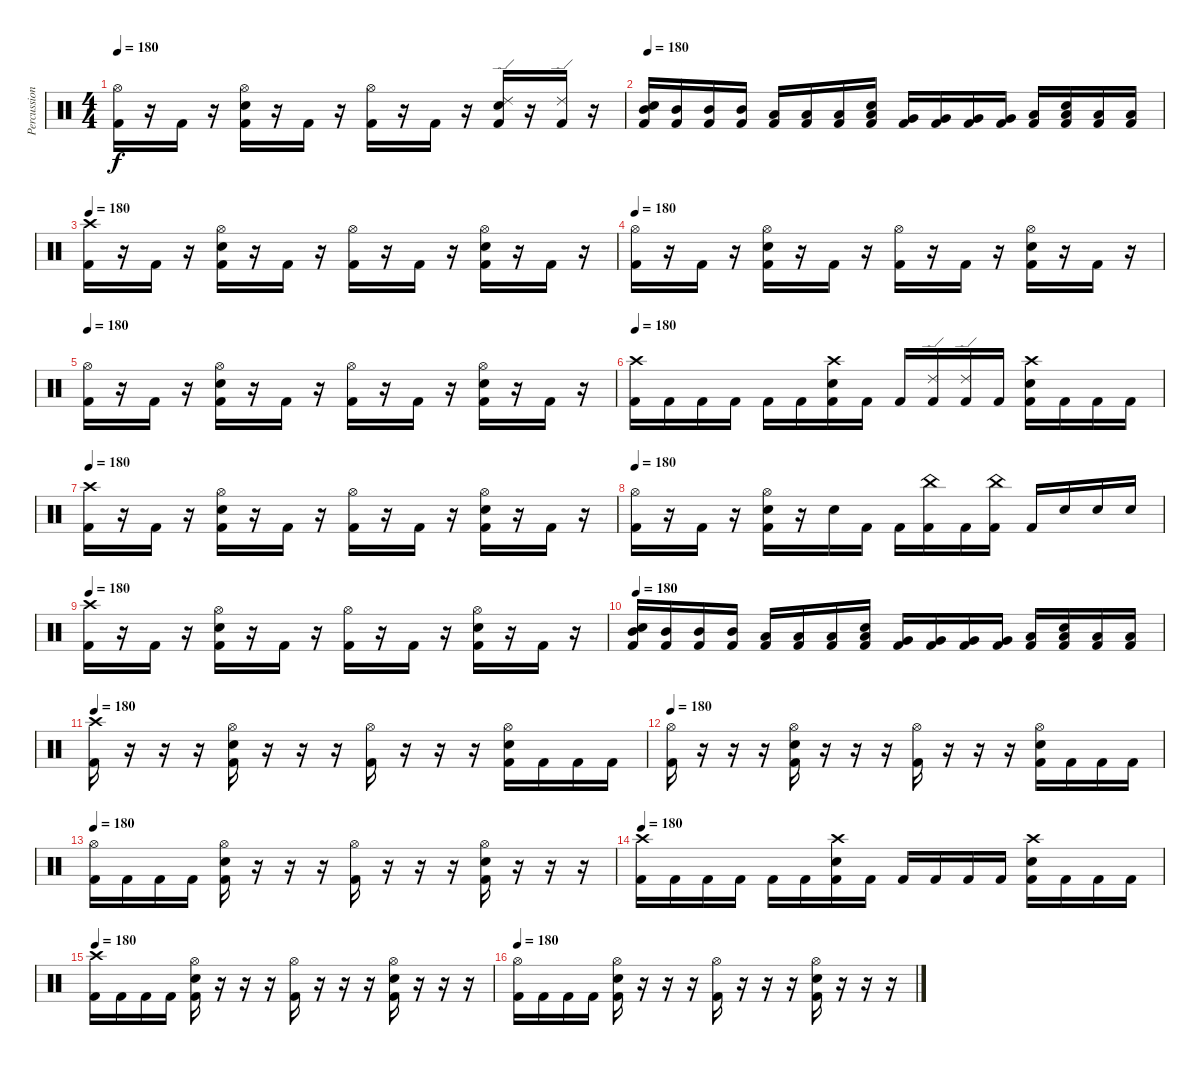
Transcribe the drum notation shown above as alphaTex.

\track ("Percussion" "Percussion") {instrument percussion}
\staff {score}
\articulation defaults
\ts (4 4)
\tempo 180
\clef neutral
\ks c
("Hi-Hat (open)" "Kick (hit) 2").16{dy f} r.16 "Kick (hit) 2".16 r.16 ("Hi-Hat (open)" "Snare (hit) 2" "Kick (hit) 2").16 r.16 "Kick (hit) 2".16 r.16 ("Hi-Hat (open)" "Kick (hit) 2").16 r.16 "Kick (hit) 2".16 r.16 ("Ride (edge) 2" "Snare (hit) 2" "Kick (hit) 2").16 r.16 ("Ride (edge) 2" "Kick (hit) 2").16 r.16 |
\tempo 180
("Mid Tom (hit)" "Snare (hit) 2" "Kick (hit) 2").16 ("Mid Tom (hit)" "Kick (hit) 2").16 ("Mid Tom (hit)" "Kick (hit) 2").16 ("Mid Tom (hit)" "Kick (hit) 2").16 ("Low Tom (hit)" "Kick (hit) 2").16 ("Low Tom (hit)" "Kick (hit) 2").16 ("Low Tom (hit)" "Kick (hit) 2").16 ("Low Tom (hit)" "Snare (hit) 2" "Kick (hit) 2").16 ("Very Low Tom (hit)" "Kick (hit) 2").16 ("Very Low Tom (hit)" "Kick (hit) 2").16 ("Very Low Tom (hit)" "Kick (hit) 2").16 ("Very Low Tom (hit)" "Kick (hit) 2").16 ("Low Floor Tom (hit)" "Kick (hit) 2").16 ("Low Floor Tom (hit)" "Snare (hit) 2" "Kick (hit) 2").16 ("Low Floor Tom (hit)" "Kick (hit) 2").16 ("Low Floor Tom (hit)" "Kick (hit) 2").16 |
\tempo 180
("Crash high (hit)" "Kick (hit) 2").16 r.16 "Kick (hit) 2".16 r.16 ("Hi-Hat (open)" "Snare (hit) 2" "Kick (hit) 2").16 r.16 "Kick (hit) 2".16 r.16 ("Hi-Hat (open)" "Kick (hit) 2").16 r.16 "Kick (hit) 2".16 r.16 ("Hi-Hat (open)" "Snare (hit) 2" "Kick (hit) 2").16 r.16 "Kick (hit) 2".16 r.16 |
\tempo 180
("Hi-Hat (open)" "Kick (hit) 2").16 r.16 "Kick (hit) 2".16 r.16 ("Hi-Hat (open)" "Snare (hit) 2" "Kick (hit) 2").16 r.16 "Kick (hit) 2".16 r.16 ("Hi-Hat (open)" "Kick (hit) 2").16 r.16 "Kick (hit) 2".16 r.16 ("Hi-Hat (open)" "Snare (hit) 2" "Kick (hit) 2").16 r.16 "Kick (hit) 2".16 r.16 |
\tempo 180
("Hi-Hat (open)" "Kick (hit) 2").16 r.16 "Kick (hit) 2".16 r.16 ("Hi-Hat (open)" "Snare (hit) 2" "Kick (hit) 2").16 r.16 "Kick (hit) 2".16 r.16 ("Hi-Hat (open)" "Kick (hit) 2").16 r.16 "Kick (hit) 2".16 r.16 ("Hi-Hat (open)" "Snare (hit) 2" "Kick (hit) 2").16 r.16 "Kick (hit) 2".16 r.16 |
\tempo 180
("Crash high (hit)" "Kick (hit) 2").16 "Kick (hit) 2".16 "Kick (hit) 2".16 "Kick (hit) 2".16 "Kick (hit) 2".16 "Kick (hit) 2".16 ("Crash high (hit)" "Snare (hit) 2" "Kick (hit) 2").16 "Kick (hit) 2".16 "Kick (hit) 2".16 ("Ride (edge) 2" "Kick (hit) 2").16 ("Ride (edge) 2" "Kick (hit) 2").16 "Kick (hit) 2".16 ("Crash high (hit)" "Snare (hit) 2" "Kick (hit) 2").16 "Kick (hit) 2".16 "Kick (hit) 2".16 "Kick (hit) 2".16 |
\tempo 180
("Crash high (hit)" "Kick (hit) 2").16 r.16 "Kick (hit) 2".16 r.16 ("Hi-Hat (open)" "Snare (hit) 2" "Kick (hit) 2").16 r.16 "Kick (hit) 2".16 r.16 ("Hi-Hat (open)" "Kick (hit) 2").16 r.16 "Kick (hit) 2".16 r.16 ("Hi-Hat (open)" "Snare (hit) 2" "Kick (hit) 2").16 r.16 "Kick (hit) 2".16 r.16 |
\tempo 180
("Hi-Hat (open)" "Kick (hit) 2").16 r.16 "Kick (hit) 2".16 r.16 ("Hi-Hat (open)" "Snare (hit) 2" "Kick (hit) 2").16 r.16 "Snare (hit) 2".16 "Kick (hit) 2".16 "Kick (hit) 2".16 ("China (hit)" "Kick (hit) 2").16 "Kick (hit) 2".16 ("China (hit)" "Kick (hit) 2").16 "Kick (hit) 2".16 "Snare (hit) 2".16 "Snare (hit) 2".16 "Snare (hit) 2".16 |
\tempo 180
("Crash high (hit)" "Kick (hit) 2").16 r.16 "Kick (hit) 2".16 r.16 ("Hi-Hat (open)" "Snare (hit) 2" "Kick (hit) 2").16 r.16 "Kick (hit) 2".16 r.16 ("Hi-Hat (open)" "Kick (hit) 2").16 r.16 "Kick (hit) 2".16 r.16 ("Hi-Hat (open)" "Snare (hit) 2" "Kick (hit) 2").16 r.16 "Kick (hit) 2".16 r.16 |
\tempo 180
("Mid Tom (hit)" "Snare (hit) 2" "Kick (hit) 2").16 ("Mid Tom (hit)" "Kick (hit) 2").16 ("Mid Tom (hit)" "Kick (hit) 2").16 ("Mid Tom (hit)" "Kick (hit) 2").16 ("Low Tom (hit)" "Kick (hit) 2").16 ("Low Tom (hit)" "Kick (hit) 2").16 ("Low Tom (hit)" "Kick (hit) 2").16 ("Low Tom (hit)" "Snare (hit) 2" "Kick (hit) 2").16 ("Very Low Tom (hit)" "Kick (hit) 2").16 ("Very Low Tom (hit)" "Kick (hit) 2").16 ("Very Low Tom (hit)" "Kick (hit) 2").16 ("Very Low Tom (hit)" "Kick (hit) 2").16 ("Low Floor Tom (hit)" "Kick (hit) 2").16 ("Low Floor Tom (hit)" "Snare (hit) 2" "Kick (hit) 2").16 ("Low Floor Tom (hit)" "Kick (hit) 2").16 ("Low Floor Tom (hit)" "Kick (hit) 2").16 |
\tempo 180
("Crash high (hit)" "Kick (hit) 2").16 r.16 r.16 r.16 ("Hi-Hat (open)" "Snare (hit) 2" "Kick (hit) 2").16 r.16 r.16 r.16 ("Hi-Hat (open)" "Kick (hit) 2").16 r.16 r.16 r.16 ("Hi-Hat (open)" "Snare (hit) 2" "Kick (hit) 2").16 "Kick (hit) 2".16 "Kick (hit) 2".16 "Kick (hit) 2".16 |
\tempo 180
("Hi-Hat (open)" "Kick (hit) 2").16 r.16 r.16 r.16 ("Hi-Hat (open)" "Snare (hit) 2" "Kick (hit) 2").16 r.16 r.16 r.16 ("Hi-Hat (open)" "Kick (hit) 2").16 r.16 r.16 r.16 ("Hi-Hat (open)" "Snare (hit) 2" "Kick (hit) 2").16 "Kick (hit) 2".16 "Kick (hit) 2".16 "Kick (hit) 2".16 |
\tempo 180
("Hi-Hat (open)" "Kick (hit) 2").16 "Kick (hit) 2".16 "Kick (hit) 2".16 "Kick (hit) 2".16 ("Hi-Hat (open)" "Snare (hit) 2" "Kick (hit) 2").16 r.16 r.16 r.16 ("Hi-Hat (open)" "Kick (hit) 2").16 r.16 r.16 r.16 ("Hi-Hat (open)" "Snare (hit) 2" "Kick (hit) 2").16 r.16 r.16 r.16 |
\tempo 180
("Crash high (hit)" "Kick (hit) 2").16 "Kick (hit) 2".16 "Kick (hit) 2".16 "Kick (hit) 2".16 "Kick (hit) 2".16 "Kick (hit) 2".16 ("Crash high (hit)" "Snare (hit) 2" "Kick (hit) 2").16 "Kick (hit) 2".16 "Kick (hit) 2".16 "Kick (hit) 2".16 "Kick (hit) 2".16 "Kick (hit) 2".16 ("Crash high (hit)" "Snare (hit) 2" "Kick (hit) 2").16 "Kick (hit) 2".16 "Kick (hit) 2".16 "Kick (hit) 2".16 |
\tempo 180
("Crash high (hit)" "Kick (hit) 2").16 "Kick (hit) 2".16 "Kick (hit) 2".16 "Kick (hit) 2".16 ("Hi-Hat (open)" "Snare (hit) 2" "Kick (hit) 2").16 r.16 r.16 r.16 ("Hi-Hat (open)" "Kick (hit) 2").16 r.16 r.16 r.16 ("Hi-Hat (open)" "Snare (hit) 2" "Kick (hit) 2").16 r.16 r.16 r.16 |
\tempo 180
("Hi-Hat (open)" "Kick (hit) 2").16 "Kick (hit) 2".16 "Kick (hit) 2".16 "Kick (hit) 2".16 ("Hi-Hat (open)" "Snare (hit) 2" "Kick (hit) 2").16 r.16 r.16 r.16 ("Hi-Hat (open)" "Kick (hit) 2").16 r.16 r.16 r.16 ("Hi-Hat (open)" "Snare (hit) 2" "Kick (hit) 2").16 r.16 r.16 r.16
